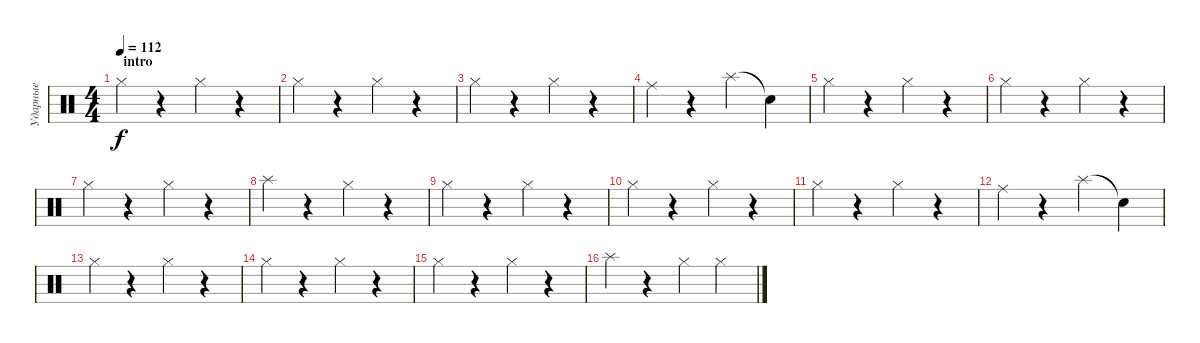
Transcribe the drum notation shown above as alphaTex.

\track ("Ударные" "Ударные") {instrument percussion}
\staff {score}
\articulation defaults
\ts (4 4)
\section ("" "  intro")
\tempo 112
\clef neutral
\ks c "Hi-Hat (closed)".4{dy f}
r.4 "Hi-Hat (closed)".4 r.4 |
"Hi-Hat (closed)".4 r.4 "Hi-Hat (closed)".4 r.4 |
"Hi-Hat (closed)".4 r.4 "Hi-Hat (closed)".4 r.4 |
"Ride (middle)".4 r.4 "Splash (hit)".4 "Snare (hit)"{t}.4 |
"Hi-Hat (closed)".4 r.4 "Hi-Hat (closed)".4 r.4 |
"Hi-Hat (closed)".4 r.4 "Hi-Hat (closed)".4 r.4 |
"Hi-Hat (closed)".4 r.4 "Hi-Hat (closed)".4 r.4 |
"Splash (hit)".4 r.4 "Hi-Hat (closed)".4 r.4 |
"Hi-Hat (closed)".4 r.4 "Hi-Hat (closed)".4 r.4 |
"Hi-Hat (closed)".4 r.4 "Hi-Hat (closed)".4 r.4 |
"Hi-Hat (closed)".4 r.4 "Hi-Hat (closed)".4 r.4 |
"Ride (middle)".4 r.4 "Splash (hit)".4 "Snare (hit)"{t}.4 |
"Hi-Hat (closed)".4 r.4 "Hi-Hat (closed)".4 r.4 |
"Hi-Hat (closed)".4 r.4 "Hi-Hat (closed)".4 r.4 |
"Hi-Hat (closed)".4 r.4 "Hi-Hat (closed)".4 r.4 |
"Splash (hit)".4 r.4 "Hi-Hat (closed)".4 "Hi-Hat (closed)".4
